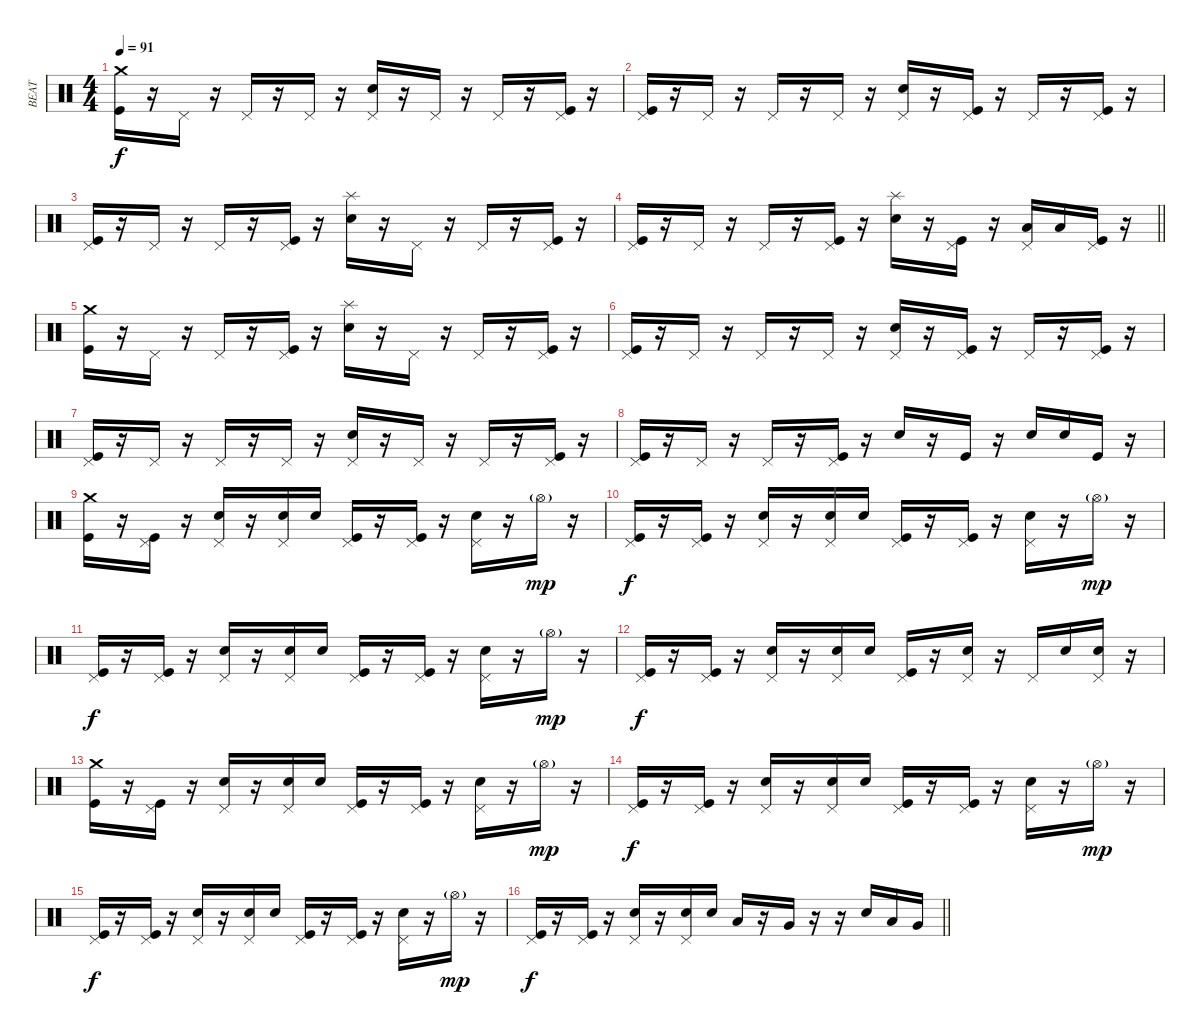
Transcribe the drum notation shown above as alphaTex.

\track ("BEAT" "BEAT") {instrument percussion}
\staff {score}
\articulation defaults
\ts (4 4)
\section ("" "")
\tempo 91
\clef neutral
\ks c
("Crash medium (hit)" "Kick (hit)").16{dy f} r.16 "Pedal Hi-Hat (hit)".16 r.16 "Pedal Hi-Hat (hit)".16 r.16 "Pedal Hi-Hat (hit)".16 r.16 ("Pedal Hi-Hat (hit)" "Electric Snare (hit)").16 r.16 "Pedal Hi-Hat (hit)".16 r.16 "Pedal Hi-Hat (hit)".16 r.16 ("Pedal Hi-Hat (hit)" "Kick (hit)").16 r.16 |
("Pedal Hi-Hat (hit)" "Kick (hit)").16 r.16 "Pedal Hi-Hat (hit)".16 r.16 "Pedal Hi-Hat (hit)".16 r.16 "Pedal Hi-Hat (hit)".16 r.16 ("Pedal Hi-Hat (hit)" "Electric Snare (hit)").16 r.16 ("Pedal Hi-Hat (hit)" "Kick (hit)").16 r.16 "Pedal Hi-Hat (hit)".16 r.16 ("Pedal Hi-Hat (hit)" "Kick (hit)").16 r.16 |
("Pedal Hi-Hat (hit)" "Kick (hit)").16 r.16 "Pedal Hi-Hat (hit)".16 r.16 "Pedal Hi-Hat (hit)".16 r.16 ("Pedal Hi-Hat (hit)" "Kick (hit)").16 r.16 ("Splash (hit)" "Electric Snare (hit)").16 r.16 "Pedal Hi-Hat (hit)".16 r.16 "Pedal Hi-Hat (hit)".16 r.16 ("Pedal Hi-Hat (hit)" "Kick (hit)").16 r.16 |
\barLineRight lightlight
("Pedal Hi-Hat (hit)" "Kick (hit)").16 r.16 "Pedal Hi-Hat (hit)".16 r.16 "Pedal Hi-Hat (hit)".16 r.16 ("Pedal Hi-Hat (hit)" "Kick (hit)").16 r.16 ("Splash (hit)" "Electric Snare (hit)").16 r.16 ("Pedal Hi-Hat (hit)" "Kick (hit)").16 r.16 ("Pedal Hi-Hat (hit)" "Low Tom (hit)").16 "Low Tom (hit)".16 ("Pedal Hi-Hat (hit)" "Kick (hit)").16 r.16 |
\section ("" "")
("Crash medium (hit)" "Kick (hit)").16 r.16 "Pedal Hi-Hat (hit)".16 r.16 "Pedal Hi-Hat (hit)".16 r.16 ("Pedal Hi-Hat (hit)" "Kick (hit)").16 r.16 ("Splash (hit)" "Electric Snare (hit)").16 r.16 "Pedal Hi-Hat (hit)".16 r.16 "Pedal Hi-Hat (hit)".16 r.16 ("Pedal Hi-Hat (hit)" "Kick (hit)").16 r.16 |
("Pedal Hi-Hat (hit)" "Kick (hit)").16 r.16 "Pedal Hi-Hat (hit)".16 r.16 "Pedal Hi-Hat (hit)".16 r.16 "Pedal Hi-Hat (hit)".16 r.16 ("Pedal Hi-Hat (hit)" "Electric Snare (hit)").16 r.16 ("Pedal Hi-Hat (hit)" "Kick (hit)").16 r.16 "Pedal Hi-Hat (hit)".16 r.16 ("Pedal Hi-Hat (hit)" "Kick (hit)").16 r.16 |
("Pedal Hi-Hat (hit)" "Kick (hit)").16 r.16 "Pedal Hi-Hat (hit)".16 r.16 "Pedal Hi-Hat (hit)".16 r.16 "Pedal Hi-Hat (hit)".16 r.16 ("Pedal Hi-Hat (hit)" "Electric Snare (hit)").16 r.16 "Pedal Hi-Hat (hit)".16 r.16 "Pedal Hi-Hat (hit)".16 r.16 ("Pedal Hi-Hat (hit)" "Kick (hit)").16 r.16 |
("Pedal Hi-Hat (hit)" "Kick (hit)").16 r.16 "Pedal Hi-Hat (hit)".16 r.16 "Pedal Hi-Hat (hit)".16 r.16 ("Pedal Hi-Hat (hit)" "Kick (hit)").16 r.16 "Electric Snare (hit)".16 r.16 "Kick (hit)".16 r.16 "Electric Snare (hit)".16 "Electric Snare (hit)".16 "Kick (hit)".16 r.16 |
("Crash medium (hit)" "Kick (hit)").16 r.16 ("Pedal Hi-Hat (hit)" "Kick (hit)").16 r.16 ("Pedal Hi-Hat (hit)" "Electric Snare (hit)").16 r.16 ("Pedal Hi-Hat (hit)" "Electric Snare (hit)").16 "Electric Snare (hit)".16 ("Pedal Hi-Hat (hit)" "Kick (hit)").16 r.16 ("Pedal Hi-Hat (hit)" "Kick (hit)").16 r.16 ("Pedal Hi-Hat (hit)" "Electric Snare (hit)").16 r.16 "Hi-Hat (open)"{g}.16{dy mp} r.16 |
("Pedal Hi-Hat (hit)" "Kick (hit)").16{dy f} r.16 ("Pedal Hi-Hat (hit)" "Kick (hit)").16 r.16 ("Pedal Hi-Hat (hit)" "Electric Snare (hit)").16 r.16 ("Pedal Hi-Hat (hit)" "Electric Snare (hit)").16 "Electric Snare (hit)".16 ("Pedal Hi-Hat (hit)" "Kick (hit)").16 r.16 ("Pedal Hi-Hat (hit)" "Kick (hit)").16 r.16 ("Pedal Hi-Hat (hit)" "Electric Snare (hit)").16 r.16 "Hi-Hat (open)"{g}.16{dy mp} r.16 |
("Pedal Hi-Hat (hit)" "Kick (hit)").16{dy f} r.16 ("Pedal Hi-Hat (hit)" "Kick (hit)").16 r.16 ("Pedal Hi-Hat (hit)" "Electric Snare (hit)").16 r.16 ("Pedal Hi-Hat (hit)" "Electric Snare (hit)").16 "Electric Snare (hit)".16 ("Pedal Hi-Hat (hit)" "Kick (hit)").16 r.16 ("Pedal Hi-Hat (hit)" "Kick (hit)").16 r.16 ("Pedal Hi-Hat (hit)" "Electric Snare (hit)").16 r.16 "Hi-Hat (open)"{g}.16{dy mp} r.16 |
("Pedal Hi-Hat (hit)" "Kick (hit)").16{dy f} r.16 ("Pedal Hi-Hat (hit)" "Kick (hit)").16 r.16 ("Pedal Hi-Hat (hit)" "Electric Snare (hit)").16 r.16 ("Pedal Hi-Hat (hit)" "Electric Snare (hit)").16 "Electric Snare (hit)".16 ("Pedal Hi-Hat (hit)" "Kick (hit)").16 r.16 ("Pedal Hi-Hat (hit)" "Electric Snare (hit)").16 r.16 "Pedal Hi-Hat (hit)".16 "Electric Snare (hit)".16 ("Pedal Hi-Hat (hit)" "Electric Snare (hit)").16 r.16 |
("Crash medium (hit)" "Kick (hit)").16 r.16 ("Pedal Hi-Hat (hit)" "Kick (hit)").16 r.16 ("Pedal Hi-Hat (hit)" "Electric Snare (hit)").16 r.16 ("Pedal Hi-Hat (hit)" "Electric Snare (hit)").16 "Electric Snare (hit)".16 ("Pedal Hi-Hat (hit)" "Kick (hit)").16 r.16 ("Pedal Hi-Hat (hit)" "Kick (hit)").16 r.16 ("Pedal Hi-Hat (hit)" "Electric Snare (hit)").16 r.16 "Hi-Hat (open)"{g}.16{dy mp} r.16 |
("Pedal Hi-Hat (hit)" "Kick (hit)").16{dy f} r.16 ("Pedal Hi-Hat (hit)" "Kick (hit)").16 r.16 ("Pedal Hi-Hat (hit)" "Electric Snare (hit)").16 r.16 ("Pedal Hi-Hat (hit)" "Electric Snare (hit)").16 "Electric Snare (hit)".16 ("Pedal Hi-Hat (hit)" "Kick (hit)").16 r.16 ("Pedal Hi-Hat (hit)" "Kick (hit)").16 r.16 ("Pedal Hi-Hat (hit)" "Electric Snare (hit)").16 r.16 "Hi-Hat (open)"{g}.16{dy mp} r.16 |
("Pedal Hi-Hat (hit)" "Kick (hit)").16{dy f} r.16 ("Pedal Hi-Hat (hit)" "Kick (hit)").16 r.16 ("Pedal Hi-Hat (hit)" "Electric Snare (hit)").16 r.16 ("Pedal Hi-Hat (hit)" "Electric Snare (hit)").16 "Electric Snare (hit)".16 ("Pedal Hi-Hat (hit)" "Kick (hit)").16 r.16 ("Pedal Hi-Hat (hit)" "Kick (hit)").16 r.16 ("Pedal Hi-Hat (hit)" "Electric Snare (hit)").16 r.16 "Hi-Hat (open)"{g}.16{dy mp} r.16 |
\barLineRight lightlight
("Pedal Hi-Hat (hit)" "Kick (hit)").16{dy f} r.16 ("Pedal Hi-Hat (hit)" "Kick (hit)").16 r.16 ("Pedal Hi-Hat (hit)" "Electric Snare (hit)").16 r.16 ("Pedal Hi-Hat (hit)" "Electric Snare (hit)").16 "Electric Snare (hit)".16 "Low Tom (hit)".16 r.16 "Very Low Tom (hit)".16 r.16 r.16 "Electric Snare (hit)".16 "Low Tom (hit)".16 "Very Low Tom (hit)".16
